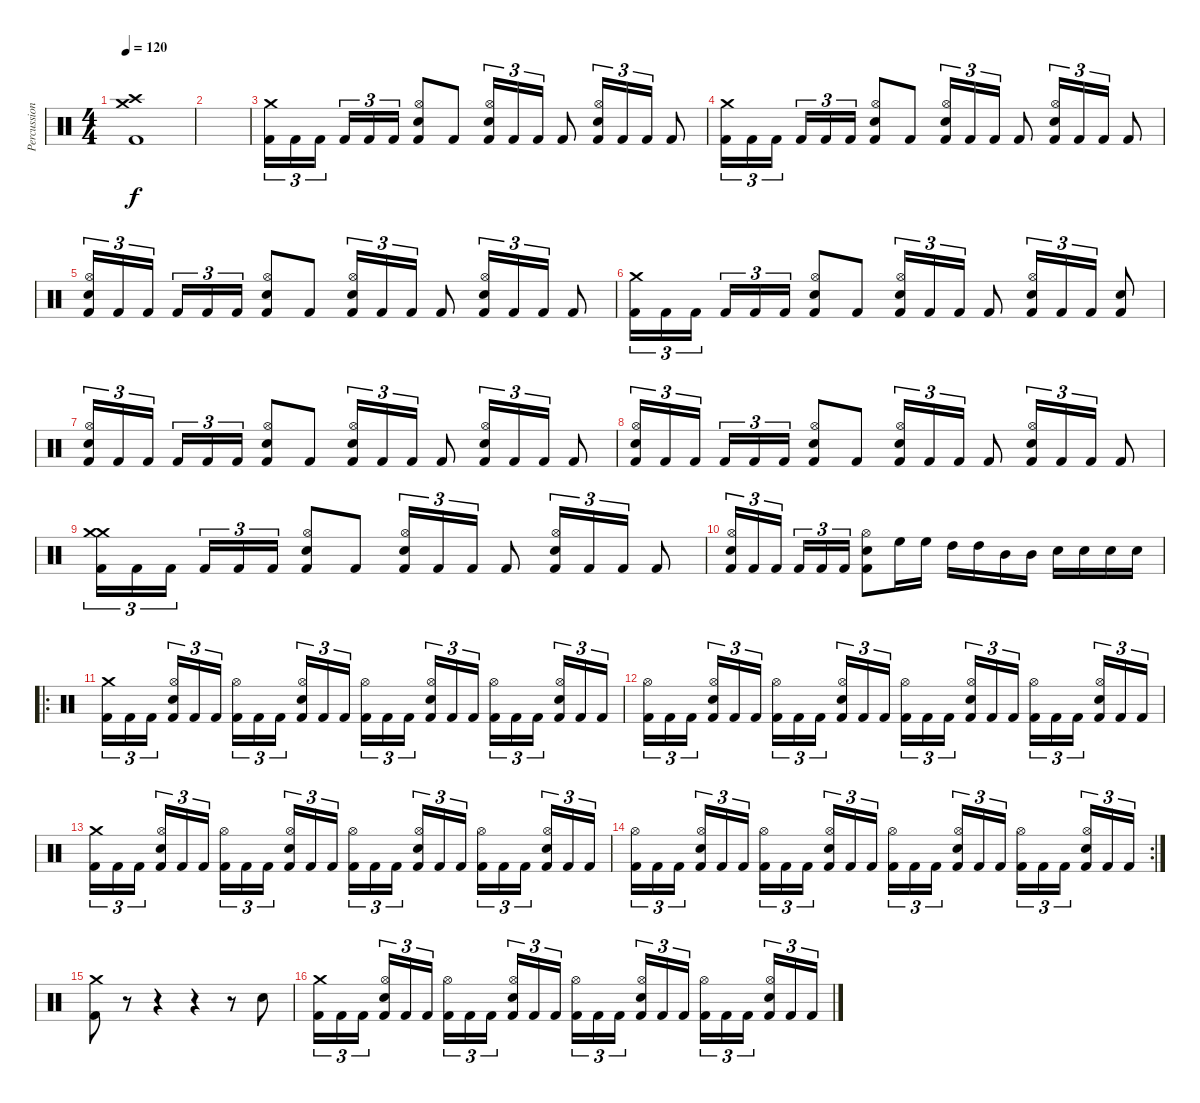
\track ("Percussion" "Percussion") {instrument percussion}
\staff {score}
\articulation defaults
\ts (4 4)
\tempo 120
\clef neutral
\ks c
("Crash high (hit)" "Kick (hit) 2" "Crash medium (hit)").1{dy f} |
|
("Crash medium (hit)" "Kick (hit) 2").16{tu (3 2)} "Kick (hit) 2".16{tu (3 2)} "Kick (hit) 2".16{tu (3 2)} "Kick (hit) 2".16{tu (3 2)} "Kick (hit) 2".16{tu (3 2)} "Kick (hit) 2".16{tu (3 2)} ("Hi-Hat (open)" "Snare (hit) 2" "Kick (hit) 2").8 "Kick (hit) 2".8 ("Hi-Hat (open)" "Snare (hit) 2" "Kick (hit) 2").16{tu (3 2)} "Kick (hit) 2".16{tu (3 2)} "Kick (hit) 2".16{tu (3 2)} "Kick (hit) 2".8 ("Hi-Hat (open)" "Snare (hit) 2" "Kick (hit) 2").16{tu (3 2)} "Kick (hit) 2".16{tu (3 2)} "Kick (hit) 2".16{tu (3 2)} "Kick (hit) 2".8 |
("Crash medium (hit)" "Kick (hit) 2").16{tu (3 2)} "Kick (hit) 2".16{tu (3 2)} "Kick (hit) 2".16{tu (3 2)} "Kick (hit) 2".16{tu (3 2)} "Kick (hit) 2".16{tu (3 2)} "Kick (hit) 2".16{tu (3 2)} ("Hi-Hat (open)" "Snare (hit) 2" "Kick (hit) 2").8 "Kick (hit) 2".8 ("Hi-Hat (open)" "Snare (hit) 2" "Kick (hit) 2").16{tu (3 2)} "Kick (hit) 2".16{tu (3 2)} "Kick (hit) 2".16{tu (3 2)} "Kick (hit) 2".8 ("Hi-Hat (open)" "Snare (hit) 2" "Kick (hit) 2").16{tu (3 2)} "Kick (hit) 2".16{tu (3 2)} "Kick (hit) 2".16{tu (3 2)} "Kick (hit) 2".8 |
("Hi-Hat (open)" "Snare (hit) 2" "Kick (hit) 2").16{tu (3 2)} "Kick (hit) 2".16{tu (3 2)} "Kick (hit) 2".16{tu (3 2)} "Kick (hit) 2".16{tu (3 2)} "Kick (hit) 2".16{tu (3 2)} "Kick (hit) 2".16{tu (3 2)} ("Hi-Hat (open)" "Snare (hit) 2" "Kick (hit) 2").8 "Kick (hit) 2".8 ("Hi-Hat (open)" "Snare (hit) 2" "Kick (hit) 2").16{tu (3 2)} "Kick (hit) 2".16{tu (3 2)} "Kick (hit) 2".16{tu (3 2)} "Kick (hit) 2".8 ("Hi-Hat (open)" "Snare (hit) 2" "Kick (hit) 2").16{tu (3 2)} "Kick (hit) 2".16{tu (3 2)} "Kick (hit) 2".16{tu (3 2)} "Kick (hit) 2".8 |
("Crash medium (hit)" "Kick (hit) 2").16{tu (3 2)} "Kick (hit) 2".16{tu (3 2)} "Kick (hit) 2".16{tu (3 2)} "Kick (hit) 2".16{tu (3 2)} "Kick (hit) 2".16{tu (3 2)} "Kick (hit) 2".16{tu (3 2)} ("Hi-Hat (open)" "Snare (hit) 2" "Kick (hit) 2").8 "Kick (hit) 2".8 ("Hi-Hat (open)" "Snare (hit) 2" "Kick (hit) 2").16{tu (3 2)} "Kick (hit) 2".16{tu (3 2)} "Kick (hit) 2".16{tu (3 2)} "Kick (hit) 2".8 ("Hi-Hat (open)" "Snare (hit) 2" "Kick (hit) 2").16{tu (3 2)} "Kick (hit) 2".16{tu (3 2)} "Kick (hit) 2".16{tu (3 2)} ("Snare (hit) 2" "Kick (hit) 2").8 |
("Snare (hit) 2" "Hi-Hat (open)" "Kick (hit) 2").16{tu (3 2)} "Kick (hit) 2".16{tu (3 2)} "Kick (hit) 2".16{tu (3 2)} "Kick (hit) 2".16{tu (3 2)} "Kick (hit) 2".16{tu (3 2)} "Kick (hit) 2".16{tu (3 2)} ("Hi-Hat (open)" "Snare (hit) 2" "Kick (hit) 2").8 "Kick (hit) 2".8 ("Hi-Hat (open)" "Snare (hit) 2" "Kick (hit) 2").16{tu (3 2)} "Kick (hit) 2".16{tu (3 2)} "Kick (hit) 2".16{tu (3 2)} "Kick (hit) 2".8 ("Hi-Hat (open)" "Snare (hit) 2" "Kick (hit) 2").16{tu (3 2)} "Kick (hit) 2".16{tu (3 2)} "Kick (hit) 2".16{tu (3 2)} "Kick (hit) 2".8 |
("Hi-Hat (open)" "Snare (hit) 2" "Kick (hit) 2").16{tu (3 2)} "Kick (hit) 2".16{tu (3 2)} "Kick (hit) 2".16{tu (3 2)} "Kick (hit) 2".16{tu (3 2)} "Kick (hit) 2".16{tu (3 2)} "Kick (hit) 2".16{tu (3 2)} ("Hi-Hat (open)" "Snare (hit) 2" "Kick (hit) 2").8 "Kick (hit) 2".8 ("Hi-Hat (open)" "Snare (hit) 2" "Kick (hit) 2").16{tu (3 2)} "Kick (hit) 2".16{tu (3 2)} "Kick (hit) 2".16{tu (3 2)} "Kick (hit) 2".8 ("Hi-Hat (open)" "Snare (hit) 2" "Kick (hit) 2").16{tu (3 2)} "Kick (hit) 2".16{tu (3 2)} "Kick (hit) 2".16{tu (3 2)} "Kick (hit) 2".8 |
("Crash medium (hit)" "Crash medium (hit)" "Kick (hit) 2").16{tu (3 2)} "Kick (hit) 2".16{tu (3 2)} "Kick (hit) 2".16{tu (3 2)} "Kick (hit) 2".16{tu (3 2)} "Kick (hit) 2".16{tu (3 2)} "Kick (hit) 2".16{tu (3 2)} ("Hi-Hat (open)" "Snare (hit) 2" "Kick (hit) 2").8 "Kick (hit) 2".8 ("Hi-Hat (open)" "Snare (hit) 2" "Kick (hit) 2").16{tu (3 2)} "Kick (hit) 2".16{tu (3 2)} "Kick (hit) 2".16{tu (3 2)} "Kick (hit) 2".8 ("Hi-Hat (open)" "Snare (hit) 2" "Kick (hit) 2").16{tu (3 2)} "Kick (hit) 2".16{tu (3 2)} "Kick (hit) 2".16{tu (3 2)} "Kick (hit) 2".8 |
("Hi-Hat (open)" "Snare (hit) 2" "Kick (hit) 2").16{tu (3 2)} "Kick (hit) 2".16{tu (3 2)} "Kick (hit) 2".16{tu (3 2)} "Kick (hit) 2".16{tu (3 2)} "Kick (hit) 2".16{tu (3 2)} "Kick (hit) 2".16{tu (3 2)} ("Hi-Hat (open)" "Snare (hit) 2" "Kick (hit) 2").8 "High Floor Tom (hit)".16 "High Floor Tom (hit)".16 "High Tom (hit)".16 "High Tom (hit)".16 "Mid Tom (hit)".16 "Mid Tom (hit)".16 "Snare (hit) 2".16 "Snare (hit) 2".16 "Snare (hit) 2".16 "Snare (hit) 2".16 |
\ro
("Kick (hit) 2" "Crash medium (hit)").16{tu (3 2)} "Kick (hit) 2".16{tu (3 2)} "Kick (hit) 2".16{tu (3 2)} ("Kick (hit) 2" "Snare (hit) 2" "Hi-Hat (open)").16{tu (3 2)} "Kick (hit) 2".16{tu (3 2)} "Kick (hit) 2".16{tu (3 2)} ("Kick (hit) 2" "Hi-Hat (open)").16{tu (3 2)} "Kick (hit) 2".16{tu (3 2)} "Kick (hit) 2".16{tu (3 2)} ("Kick (hit) 2" "Snare (hit) 2" "Hi-Hat (open)").16{tu (3 2)} "Kick (hit) 2".16{tu (3 2)} "Kick (hit) 2".16{tu (3 2)} ("Kick (hit) 2" "Hi-Hat (open)").16{tu (3 2)} "Kick (hit) 2".16{tu (3 2)} "Kick (hit) 2".16{tu (3 2)} ("Kick (hit) 2" "Snare (hit) 2" "Hi-Hat (open)").16{tu (3 2)} "Kick (hit) 2".16{tu (3 2)} "Kick (hit) 2".16{tu (3 2)} ("Kick (hit) 2" "Hi-Hat (open)").16{tu (3 2)} "Kick (hit) 2".16{tu (3 2)} "Kick (hit) 2".16{tu (3 2)} ("Kick (hit) 2" "Snare (hit) 2" "Hi-Hat (open)").16{tu (3 2)} "Kick (hit) 2".16{tu (3 2)} "Kick (hit) 2".16{tu (3 2)} |
("Kick (hit) 2" "Hi-Hat (open)").16{tu (3 2)} "Kick (hit) 2".16{tu (3 2)} "Kick (hit) 2".16{tu (3 2)} ("Kick (hit) 2" "Snare (hit) 2" "Hi-Hat (open)").16{tu (3 2)} "Kick (hit) 2".16{tu (3 2)} "Kick (hit) 2".16{tu (3 2)} ("Kick (hit) 2" "Hi-Hat (open)").16{tu (3 2)} "Kick (hit) 2".16{tu (3 2)} "Kick (hit) 2".16{tu (3 2)} ("Kick (hit) 2" "Snare (hit) 2" "Hi-Hat (open)").16{tu (3 2)} "Kick (hit) 2".16{tu (3 2)} "Kick (hit) 2".16{tu (3 2)} ("Kick (hit) 2" "Hi-Hat (open)").16{tu (3 2)} "Kick (hit) 2".16{tu (3 2)} "Kick (hit) 2".16{tu (3 2)} ("Kick (hit) 2" "Snare (hit) 2" "Hi-Hat (open)").16{tu (3 2)} "Kick (hit) 2".16{tu (3 2)} "Kick (hit) 2".16{tu (3 2)} ("Kick (hit) 2" "Hi-Hat (open)").16{tu (3 2)} "Kick (hit) 2".16{tu (3 2)} "Kick (hit) 2".16{tu (3 2)} ("Kick (hit) 2" "Snare (hit) 2" "Hi-Hat (open)").16{tu (3 2)} "Kick (hit) 2".16{tu (3 2)} "Kick (hit) 2".16{tu (3 2)} |
("Kick (hit) 2" "Crash medium (hit)").16{tu (3 2)} "Kick (hit) 2".16{tu (3 2)} "Kick (hit) 2".16{tu (3 2)} ("Kick (hit) 2" "Snare (hit) 2" "Hi-Hat (open)").16{tu (3 2)} "Kick (hit) 2".16{tu (3 2)} "Kick (hit) 2".16{tu (3 2)} ("Kick (hit) 2" "Hi-Hat (open)").16{tu (3 2)} "Kick (hit) 2".16{tu (3 2)} "Kick (hit) 2".16{tu (3 2)} ("Kick (hit) 2" "Snare (hit) 2" "Hi-Hat (open)").16{tu (3 2)} "Kick (hit) 2".16{tu (3 2)} "Kick (hit) 2".16{tu (3 2)} ("Kick (hit) 2" "Hi-Hat (open)").16{tu (3 2)} "Kick (hit) 2".16{tu (3 2)} "Kick (hit) 2".16{tu (3 2)} ("Kick (hit) 2" "Snare (hit) 2" "Hi-Hat (open)").16{tu (3 2)} "Kick (hit) 2".16{tu (3 2)} "Kick (hit) 2".16{tu (3 2)} ("Kick (hit) 2" "Hi-Hat (open)").16{tu (3 2)} "Kick (hit) 2".16{tu (3 2)} "Kick (hit) 2".16{tu (3 2)} ("Kick (hit) 2" "Snare (hit) 2" "Hi-Hat (open)").16{tu (3 2)} "Kick (hit) 2".16{tu (3 2)} "Kick (hit) 2".16{tu (3 2)} |
\rc 2
("Kick (hit) 2" "Hi-Hat (open)").16{tu (3 2)} "Kick (hit) 2".16{tu (3 2)} "Kick (hit) 2".16{tu (3 2)} ("Kick (hit) 2" "Snare (hit) 2" "Hi-Hat (open)").16{tu (3 2)} "Kick (hit) 2".16{tu (3 2)} "Kick (hit) 2".16{tu (3 2)} ("Kick (hit) 2" "Hi-Hat (open)").16{tu (3 2)} "Kick (hit) 2".16{tu (3 2)} "Kick (hit) 2".16{tu (3 2)} ("Kick (hit) 2" "Snare (hit) 2" "Hi-Hat (open)").16{tu (3 2)} "Kick (hit) 2".16{tu (3 2)} "Kick (hit) 2".16{tu (3 2)} ("Kick (hit) 2" "Hi-Hat (open)").16{tu (3 2)} "Kick (hit) 2".16{tu (3 2)} "Kick (hit) 2".16{tu (3 2)} ("Kick (hit) 2" "Snare (hit) 2" "Hi-Hat (open)").16{tu (3 2)} "Kick (hit) 2".16{tu (3 2)} "Kick (hit) 2".16{tu (3 2)} ("Kick (hit) 2" "Hi-Hat (open)").16{tu (3 2)} "Kick (hit) 2".16{tu (3 2)} "Kick (hit) 2".16{tu (3 2)} ("Kick (hit) 2" "Snare (hit) 2" "Hi-Hat (open)").16{tu (3 2)} "Kick (hit) 2".16{tu (3 2)} "Kick (hit) 2".16{tu (3 2)} |
("Kick (hit) 2" "Crash medium (hit)").8 r.8 r.4 r.4 r.8 "Snare (hit) 2".8 |
("Kick (hit) 2" "Crash medium (hit)").16{tu (3 2)} "Kick (hit) 2".16{tu (3 2)} "Kick (hit) 2".16{tu (3 2)} ("Kick (hit) 2" "Snare (hit) 2" "Hi-Hat (open)").16{tu (3 2)} "Kick (hit) 2".16{tu (3 2)} "Kick (hit) 2".16{tu (3 2)} ("Kick (hit) 2" "Hi-Hat (open)").16{tu (3 2)} "Kick (hit) 2".16{tu (3 2)} "Kick (hit) 2".16{tu (3 2)} ("Kick (hit) 2" "Snare (hit) 2" "Hi-Hat (open)").16{tu (3 2)} "Kick (hit) 2".16{tu (3 2)} "Kick (hit) 2".16{tu (3 2)} ("Kick (hit) 2" "Hi-Hat (open)").16{tu (3 2)} "Kick (hit) 2".16{tu (3 2)} "Kick (hit) 2".16{tu (3 2)} ("Kick (hit) 2" "Snare (hit) 2" "Hi-Hat (open)").16{tu (3 2)} "Kick (hit) 2".16{tu (3 2)} "Kick (hit) 2".16{tu (3 2)} ("Kick (hit) 2" "Hi-Hat (open)").16{tu (3 2)} "Kick (hit) 2".16{tu (3 2)} "Kick (hit) 2".16{tu (3 2)} ("Kick (hit) 2" "Snare (hit) 2" "Hi-Hat (open)").16{tu (3 2)} "Kick (hit) 2".16{tu (3 2)} "Kick (hit) 2".16{tu (3 2)}
